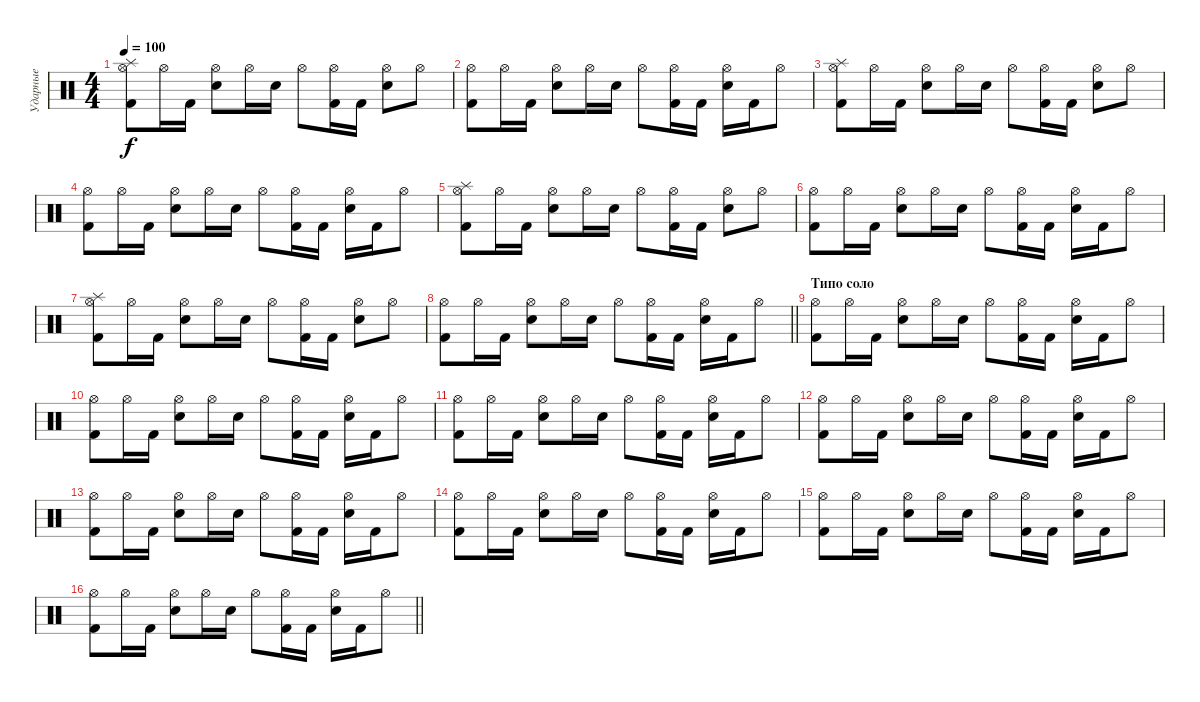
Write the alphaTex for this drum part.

\track ("Ударные" "Ударные") {instrument percussion}
\staff {score}
\articulation defaults
\ts (4 4)
\tempo 100
\clef neutral
\ks c
("Hi-Hat (open)" "Splash (hit)" "Kick (hit) 2").8{dy f} "Hi-Hat (open)".16 "Kick (hit) 2".16 ("Hi-Hat (open)" "Snare (hit) 2").8 "Hi-Hat (open)".16 "Snare (hit) 2".16 "Hi-Hat (open)".8 ("Hi-Hat (open)" "Kick (hit) 2").16 "Kick (hit) 2".16 ("Hi-Hat (open)" "Snare (hit) 2").8 "Hi-Hat (open)".8 |
("Hi-Hat (open)" "Kick (hit) 2").8 "Hi-Hat (open)".16 "Kick (hit) 2".16 ("Hi-Hat (open)" "Snare (hit) 2").8 "Hi-Hat (open)".16 "Snare (hit) 2".16 "Hi-Hat (open)".8 ("Hi-Hat (open)" "Kick (hit) 2").16 "Kick (hit) 2".16 ("Hi-Hat (open)" "Snare (hit) 2").16 "Kick (hit) 2".16 "Hi-Hat (open)".8 |
("Hi-Hat (open)" "Splash (hit)" "Kick (hit) 2").8 "Hi-Hat (open)".16 "Kick (hit) 2".16 ("Hi-Hat (open)" "Snare (hit) 2").8 "Hi-Hat (open)".16 "Snare (hit) 2".16 "Hi-Hat (open)".8 ("Hi-Hat (open)" "Kick (hit) 2").16 "Kick (hit) 2".16 ("Hi-Hat (open)" "Snare (hit) 2").8 "Hi-Hat (open)".8 |
("Hi-Hat (open)" "Kick (hit) 2").8 "Hi-Hat (open)".16 "Kick (hit) 2".16 ("Hi-Hat (open)" "Snare (hit) 2").8 "Hi-Hat (open)".16 "Snare (hit) 2".16 "Hi-Hat (open)".8 ("Hi-Hat (open)" "Kick (hit) 2").16 "Kick (hit) 2".16 ("Hi-Hat (open)" "Snare (hit) 2").16 "Kick (hit) 2".16 "Hi-Hat (open)".8 |
("Hi-Hat (open)" "Splash (hit)" "Kick (hit) 2").8 "Hi-Hat (open)".16 "Kick (hit) 2".16 ("Hi-Hat (open)" "Snare (hit) 2").8 "Hi-Hat (open)".16 "Snare (hit) 2".16 "Hi-Hat (open)".8 ("Hi-Hat (open)" "Kick (hit) 2").16 "Kick (hit) 2".16 ("Hi-Hat (open)" "Snare (hit) 2").8 "Hi-Hat (open)".8 |
("Hi-Hat (open)" "Kick (hit) 2").8 "Hi-Hat (open)".16 "Kick (hit) 2".16 ("Hi-Hat (open)" "Snare (hit) 2").8 "Hi-Hat (open)".16 "Snare (hit) 2".16 "Hi-Hat (open)".8 ("Hi-Hat (open)" "Kick (hit) 2").16 "Kick (hit) 2".16 ("Hi-Hat (open)" "Snare (hit) 2").16 "Kick (hit) 2".16 "Hi-Hat (open)".8 |
("Hi-Hat (open)" "Splash (hit)" "Kick (hit) 2").8 "Hi-Hat (open)".16 "Kick (hit) 2".16 ("Hi-Hat (open)" "Snare (hit) 2").8 "Hi-Hat (open)".16 "Snare (hit) 2".16 "Hi-Hat (open)".8 ("Hi-Hat (open)" "Kick (hit) 2").16 "Kick (hit) 2".16 ("Hi-Hat (open)" "Snare (hit) 2").8 "Hi-Hat (open)".8 |
\barLineRight lightlight
("Hi-Hat (open)" "Kick (hit) 2").8 "Hi-Hat (open)".16 "Kick (hit) 2".16 ("Hi-Hat (open)" "Snare (hit) 2").8 "Hi-Hat (open)".16 "Snare (hit) 2".16 "Hi-Hat (open)".8 ("Hi-Hat (open)" "Kick (hit) 2").16 "Kick (hit) 2".16 ("Hi-Hat (open)" "Snare (hit) 2").16 "Kick (hit) 2".16 "Hi-Hat (open)".8 |
\section ("" "Типо соло")
("Hi-Hat (open)" "Kick (hit) 2").8 "Hi-Hat (open)".16 "Kick (hit) 2".16 ("Hi-Hat (open)" "Snare (hit) 2").8 "Hi-Hat (open)".16 "Snare (hit) 2".16 "Hi-Hat (open)".8 ("Hi-Hat (open)" "Kick (hit) 2").16 "Kick (hit) 2".16 ("Hi-Hat (open)" "Snare (hit) 2").16 "Kick (hit) 2".16 "Hi-Hat (open)".8 |
("Hi-Hat (open)" "Kick (hit) 2").8 "Hi-Hat (open)".16 "Kick (hit) 2".16 ("Hi-Hat (open)" "Snare (hit) 2").8 "Hi-Hat (open)".16 "Snare (hit) 2".16 "Hi-Hat (open)".8 ("Hi-Hat (open)" "Kick (hit) 2").16 "Kick (hit) 2".16 ("Hi-Hat (open)" "Snare (hit) 2").16 "Kick (hit) 2".16 "Hi-Hat (open)".8 |
("Hi-Hat (open)" "Kick (hit) 2").8 "Hi-Hat (open)".16 "Kick (hit) 2".16 ("Hi-Hat (open)" "Snare (hit) 2").8 "Hi-Hat (open)".16 "Snare (hit) 2".16 "Hi-Hat (open)".8 ("Hi-Hat (open)" "Kick (hit) 2").16 "Kick (hit) 2".16 ("Hi-Hat (open)" "Snare (hit) 2").16 "Kick (hit) 2".16 "Hi-Hat (open)".8 |
("Hi-Hat (open)" "Kick (hit) 2").8 "Hi-Hat (open)".16 "Kick (hit) 2".16 ("Hi-Hat (open)" "Snare (hit) 2").8 "Hi-Hat (open)".16 "Snare (hit) 2".16 "Hi-Hat (open)".8 ("Hi-Hat (open)" "Kick (hit) 2").16 "Kick (hit) 2".16 ("Hi-Hat (open)" "Snare (hit) 2").16 "Kick (hit) 2".16 "Hi-Hat (open)".8 |
("Hi-Hat (open)" "Kick (hit) 2").8 "Hi-Hat (open)".16 "Kick (hit) 2".16 ("Hi-Hat (open)" "Snare (hit) 2").8 "Hi-Hat (open)".16 "Snare (hit) 2".16 "Hi-Hat (open)".8 ("Hi-Hat (open)" "Kick (hit) 2").16 "Kick (hit) 2".16 ("Hi-Hat (open)" "Snare (hit) 2").16 "Kick (hit) 2".16 "Hi-Hat (open)".8 |
("Hi-Hat (open)" "Kick (hit) 2").8 "Hi-Hat (open)".16 "Kick (hit) 2".16 ("Hi-Hat (open)" "Snare (hit) 2").8 "Hi-Hat (open)".16 "Snare (hit) 2".16 "Hi-Hat (open)".8 ("Hi-Hat (open)" "Kick (hit) 2").16 "Kick (hit) 2".16 ("Hi-Hat (open)" "Snare (hit) 2").16 "Kick (hit) 2".16 "Hi-Hat (open)".8 |
("Hi-Hat (open)" "Kick (hit) 2").8 "Hi-Hat (open)".16 "Kick (hit) 2".16 ("Hi-Hat (open)" "Snare (hit) 2").8 "Hi-Hat (open)".16 "Snare (hit) 2".16 "Hi-Hat (open)".8 ("Hi-Hat (open)" "Kick (hit) 2").16 "Kick (hit) 2".16 ("Hi-Hat (open)" "Snare (hit) 2").16 "Kick (hit) 2".16 "Hi-Hat (open)".8 |
\barLineRight lightlight
("Hi-Hat (open)" "Kick (hit) 2").8 "Hi-Hat (open)".16 "Kick (hit) 2".16 ("Hi-Hat (open)" "Snare (hit) 2").8 "Hi-Hat (open)".16 "Snare (hit) 2".16 "Hi-Hat (open)".8 ("Hi-Hat (open)" "Kick (hit) 2").16 "Kick (hit) 2".16 ("Hi-Hat (open)" "Snare (hit) 2").16 "Kick (hit) 2".16 "Hi-Hat (open)".8
